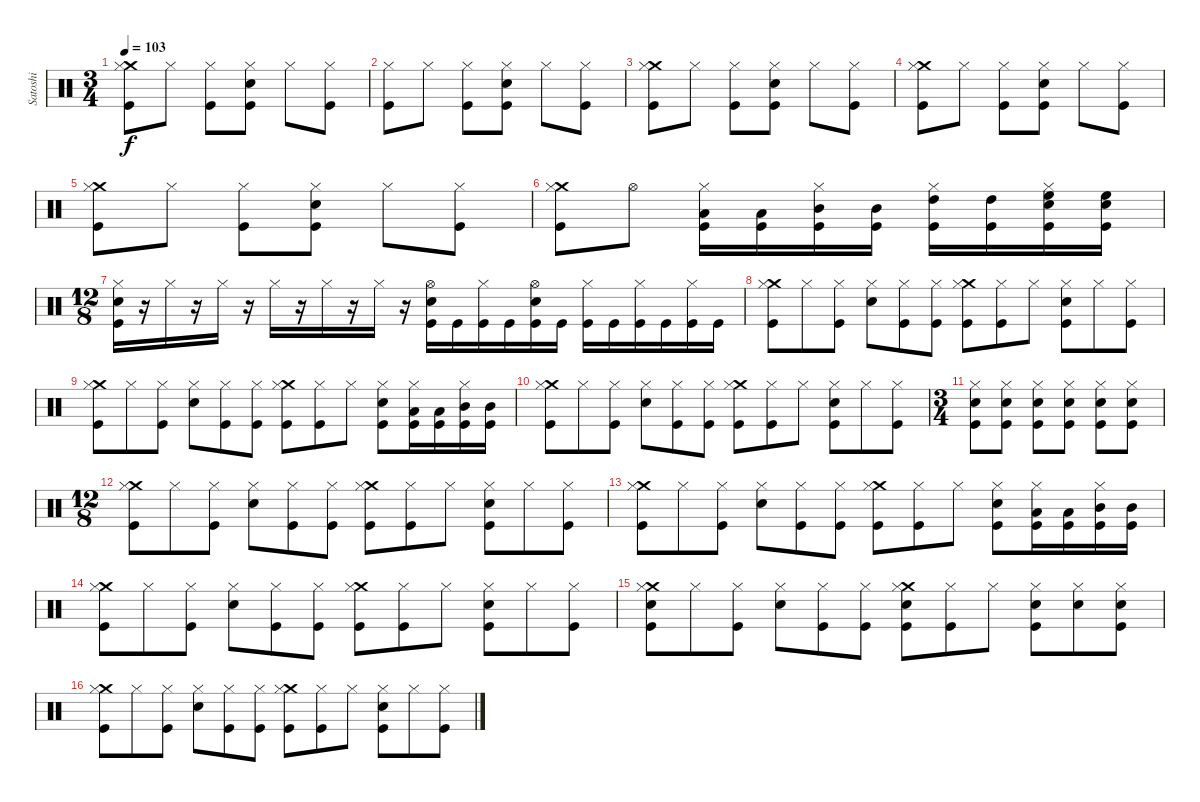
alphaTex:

\track ("Satoshi" "Satoshi") {instrument percussion}
\staff {score}
\articulation defaults
\ts (3 4)
\tempo 103
\clef neutral
\ks c
("Crash medium (hit)" "Hi-Hat (closed)" "Kick (hit)").8{dy f} "Hi-Hat (closed)".8 ("Hi-Hat (closed)" "Kick (hit)").8 ("Hi-Hat (closed)" "Electric Snare (hit)" "Kick (hit)").8 "Hi-Hat (closed)".8 ("Hi-Hat (closed)" "Kick (hit)").8 |
("Hi-Hat (closed)" "Kick (hit)").8 "Hi-Hat (closed)".8 ("Hi-Hat (closed)" "Kick (hit)").8 ("Hi-Hat (closed)" "Electric Snare (hit)" "Kick (hit)").8 "Hi-Hat (closed)".8 ("Hi-Hat (closed)" "Kick (hit)").8 |
("Crash medium (hit)" "Hi-Hat (closed)" "Kick (hit)").8 "Hi-Hat (closed)".8 ("Hi-Hat (closed)" "Kick (hit)").8 ("Hi-Hat (closed)" "Electric Snare (hit)" "Kick (hit)").8 "Hi-Hat (closed)".8 ("Hi-Hat (closed)" "Kick (hit)").8 |
("Crash medium (hit)" "Hi-Hat (closed)" "Kick (hit)").8 "Hi-Hat (closed)".8 ("Hi-Hat (closed)" "Kick (hit)").8 ("Hi-Hat (closed)" "Electric Snare (hit)" "Kick (hit)").8 "Hi-Hat (closed)".8 ("Hi-Hat (closed)" "Kick (hit)").8 |
("Crash medium (hit)" "Hi-Hat (closed)" "Kick (hit)").8 "Hi-Hat (closed)".8 ("Hi-Hat (closed)" "Kick (hit)").8 ("Hi-Hat (closed)" "Electric Snare (hit)" "Kick (hit)").8 "Hi-Hat (closed)".8 ("Hi-Hat (closed)" "Kick (hit)").8 |
("Crash medium (hit)" "Hi-Hat (closed)" "Kick (hit)").8 "Hi-Hat (open)".8 ("Low Tom (hit)" "Hi-Hat (closed)" "Kick (hit)").16 ("Low Tom (hit)" "Kick (hit)").16 ("Mid Tom (hit)" "Hi-Hat (closed)" "Kick (hit)").16 ("Mid Tom (hit)" "Kick (hit)").16 ("High Tom (hit)" "Hi-Hat (closed)" "Kick (hit)").16 ("High Tom (hit)" "Kick (hit)").16 ("High Floor Tom (hit)" "Hi-Hat (closed)" "Electric Snare (hit)" "Kick (hit)").16 ("High Floor Tom (hit)" "Electric Snare (hit)" "Kick (hit)").16 |
\ts (12 8)
("Hi-Hat (closed)" "Electric Snare (hit)" "Kick (hit)").16 r.16 "Hi-Hat (closed)".16 r.16 "Hi-Hat (closed)".16 r.16 "Hi-Hat (closed)".16 r.16 "Hi-Hat (closed)".16 r.16 "Hi-Hat (closed)".16 r.16 ("Hi-Hat (open)" "Electric Snare (hit)" "Kick (hit)").16 "Kick (hit)".16 ("Hi-Hat (closed)" "Kick (hit)").16 "Kick (hit)".16 ("Hi-Hat (open)" "Electric Snare (hit)" "Kick (hit)").16 "Kick (hit)".16 ("Hi-Hat (closed)" "Kick (hit)").16 "Kick (hit)".16 ("Hi-Hat (closed)" "Kick (hit)").16 "Kick (hit)".16 ("Hi-Hat (closed)" "Kick (hit)").16 "Kick (hit)".16 |
("Crash medium (hit)" "Hi-Hat (closed)" "Kick (hit)").8 "Hi-Hat (closed)".8 ("Hi-Hat (closed)" "Kick (hit)").8 ("Hi-Hat (closed)" "Electric Snare (hit)").8 ("Hi-Hat (closed)" "Kick (hit)").8 ("Hi-Hat (closed)" "Kick (hit)").8 ("Crash medium (hit)" "Hi-Hat (closed)" "Kick (hit)").8 ("Hi-Hat (closed)" "Kick (hit)").8 "Hi-Hat (closed)".8 ("Hi-Hat (closed)" "Electric Snare (hit)" "Kick (hit)").8 "Hi-Hat (closed)".8 ("Hi-Hat (closed)" "Kick (hit)").8 |
("Crash medium (hit)" "Hi-Hat (closed)" "Kick (hit)").8 "Hi-Hat (closed)".8 ("Hi-Hat (closed)" "Kick (hit)").8 ("Hi-Hat (closed)" "Electric Snare (hit)").8 ("Hi-Hat (closed)" "Kick (hit)").8 ("Hi-Hat (closed)" "Kick (hit)").8 ("Crash medium (hit)" "Hi-Hat (closed)" "Kick (hit)").8 ("Hi-Hat (closed)" "Kick (hit)").8 "Hi-Hat (closed)".8 ("Hi-Hat (closed)" "Electric Snare (hit)" "Kick (hit)").8 ("Hi-Hat (closed)" "Low Tom (hit)" "Kick (hit)").16 ("Low Tom (hit)" "Kick (hit)").16 ("Hi-Hat (closed)" "Mid Tom (hit)" "Kick (hit)").16 ("Mid Tom (hit)" "Kick (hit)").16 |
("Crash medium (hit)" "Hi-Hat (closed)" "Kick (hit)").8 "Hi-Hat (closed)".8 ("Hi-Hat (closed)" "Kick (hit)").8 ("Hi-Hat (closed)" "Electric Snare (hit)").8 ("Hi-Hat (closed)" "Kick (hit)").8 ("Hi-Hat (closed)" "Kick (hit)").8 ("Crash medium (hit)" "Hi-Hat (closed)" "Kick (hit)").8 ("Hi-Hat (closed)" "Kick (hit)").8 "Hi-Hat (closed)".8 ("Hi-Hat (closed)" "Electric Snare (hit)" "Kick (hit)").8 "Hi-Hat (closed)".8 ("Hi-Hat (closed)" "Kick (hit)").8 |
\ts (3 4)
("Hi-Hat (closed)" "Electric Snare (hit)" "Kick (hit)").8 ("Hi-Hat (closed)" "Electric Snare (hit)" "Kick (hit)").8 ("Hi-Hat (closed)" "Electric Snare (hit)" "Kick (hit)").8 ("Hi-Hat (closed)" "Electric Snare (hit)" "Kick (hit)").8 ("Hi-Hat (closed)" "Electric Snare (hit)" "Kick (hit)").8 ("Hi-Hat (closed)" "Electric Snare (hit)" "Kick (hit)").8 |
\ts (12 8)
("Crash medium (hit)" "Hi-Hat (closed)" "Kick (hit)").8 "Hi-Hat (closed)".8 ("Hi-Hat (closed)" "Kick (hit)").8 ("Hi-Hat (closed)" "Electric Snare (hit)").8 ("Hi-Hat (closed)" "Kick (hit)").8 ("Hi-Hat (closed)" "Kick (hit)").8 ("Crash medium (hit)" "Hi-Hat (closed)" "Kick (hit)").8 ("Hi-Hat (closed)" "Kick (hit)").8 "Hi-Hat (closed)".8 ("Hi-Hat (closed)" "Electric Snare (hit)" "Kick (hit)").8 "Hi-Hat (closed)".8 ("Hi-Hat (closed)" "Kick (hit)").8 |
("Crash medium (hit)" "Hi-Hat (closed)" "Kick (hit)").8 "Hi-Hat (closed)".8 ("Hi-Hat (closed)" "Kick (hit)").8 ("Hi-Hat (closed)" "Electric Snare (hit)").8 ("Hi-Hat (closed)" "Kick (hit)").8 ("Hi-Hat (closed)" "Kick (hit)").8 ("Crash medium (hit)" "Hi-Hat (closed)" "Kick (hit)").8 ("Hi-Hat (closed)" "Kick (hit)").8 "Hi-Hat (closed)".8 ("Hi-Hat (closed)" "Electric Snare (hit)" "Kick (hit)").8 ("Hi-Hat (closed)" "Low Tom (hit)" "Kick (hit)").16 ("Low Tom (hit)" "Kick (hit)").16 ("Hi-Hat (closed)" "Mid Tom (hit)" "Kick (hit)").16 ("Mid Tom (hit)" "Kick (hit)").16 |
("Crash medium (hit)" "Hi-Hat (closed)" "Kick (hit)").8 "Hi-Hat (closed)".8 ("Hi-Hat (closed)" "Kick (hit)").8 ("Hi-Hat (closed)" "Electric Snare (hit)").8 ("Hi-Hat (closed)" "Kick (hit)").8 ("Hi-Hat (closed)" "Kick (hit)").8 ("Crash medium (hit)" "Hi-Hat (closed)" "Kick (hit)").8 ("Hi-Hat (closed)" "Kick (hit)").8 "Hi-Hat (closed)".8 ("Hi-Hat (closed)" "Electric Snare (hit)" "Kick (hit)").8 "Hi-Hat (closed)".8 ("Hi-Hat (closed)" "Kick (hit)").8 |
("Crash medium (hit)" "Hi-Hat (closed)" "Electric Snare (hit)" "Kick (hit)").8 "Hi-Hat (closed)".8 ("Hi-Hat (closed)" "Kick (hit)").8 ("Hi-Hat (closed)" "Electric Snare (hit)").8 ("Hi-Hat (closed)" "Kick (hit)").8 ("Hi-Hat (closed)" "Kick (hit)").8 ("Crash medium (hit)" "Hi-Hat (closed)" "Electric Snare (hit)" "Kick (hit)").8 ("Hi-Hat (closed)" "Kick (hit)").8 "Hi-Hat (closed)".8 ("Hi-Hat (closed)" "Electric Snare (hit)" "Kick (hit)").8 ("Hi-Hat (closed)" "Electric Snare (hit)").8 ("Hi-Hat (closed)" "Electric Snare (hit)" "Kick (hit)").8 |
("Crash medium (hit)" "Hi-Hat (closed)" "Kick (hit)").8 "Hi-Hat (closed)".8 ("Hi-Hat (closed)" "Kick (hit)").8 ("Hi-Hat (closed)" "Electric Snare (hit)").8 ("Hi-Hat (closed)" "Kick (hit)").8 ("Hi-Hat (closed)" "Kick (hit)").8 ("Crash medium (hit)" "Hi-Hat (closed)" "Kick (hit)").8 ("Hi-Hat (closed)" "Kick (hit)").8 "Hi-Hat (closed)".8 ("Hi-Hat (closed)" "Electric Snare (hit)" "Kick (hit)").8 "Hi-Hat (closed)".8 ("Hi-Hat (closed)" "Kick (hit)").8
